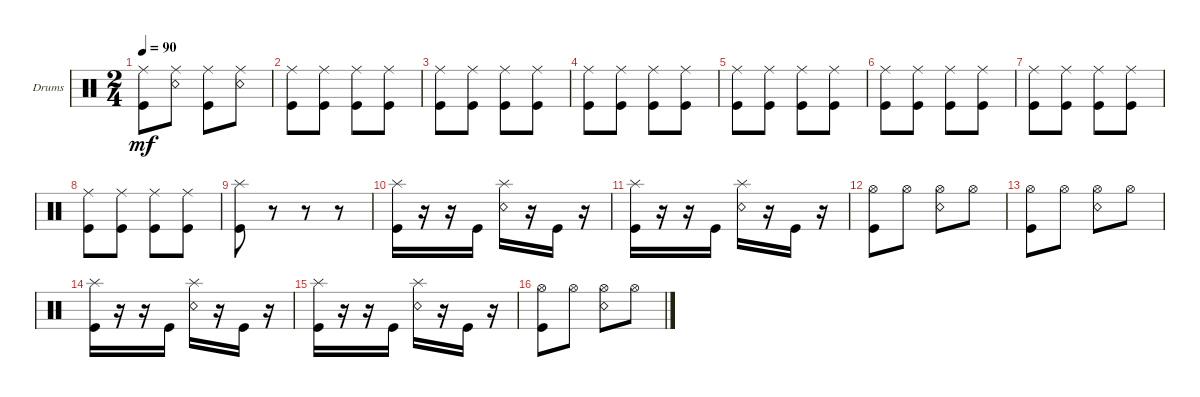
\defaultSystemsLayout 4
\bracketExtendMode groupsimilarinstruments
\firstSystemTrackNameOrientation horizontal
\otherSystemsTrackNameOrientation horizontal
\track ("Drumkit" "Drums") {instrument percussion}
\staff {score}
\articulation defaults
\ts (2 4)
\tempo 90
\clef neutral
\ks c
("Kick (hit)" "Ride (middle)").8{dy mf} ("Ride (middle)" "Snare (rim shot)").8 ("Ride (middle)" "Kick (hit)").8 ("Ride (middle)" "Snare (rim shot)").8 |
("Kick (hit)" "Ride (middle)").8 ("Kick (hit)" "Ride (middle)").8 ("Kick (hit)" "Ride (middle)").8 ("Kick (hit)" "Ride (middle)").8 |
("Kick (hit)" "Ride (middle)").8 ("Kick (hit)" "Ride (middle)").8 ("Kick (hit)" "Ride (middle)").8 ("Kick (hit)" "Ride (middle)").8 |
("Kick (hit)" "Ride (middle)").8 ("Kick (hit)" "Ride (middle)").8 ("Kick (hit)" "Ride (middle)").8 ("Kick (hit)" "Ride (middle)").8 |
("Kick (hit)" "Ride (middle)").8 ("Kick (hit)" "Ride (middle)").8 ("Kick (hit)" "Ride (middle)").8 ("Kick (hit)" "Ride (middle)").8 |
("Kick (hit)" "Ride (middle)").8 ("Kick (hit)" "Ride (middle)").8 ("Kick (hit)" "Ride (middle)").8 ("Kick (hit)" "Ride (middle)").8 |
("Kick (hit)" "Ride (middle)").8 ("Kick (hit)" "Ride (middle)").8 ("Kick (hit)" "Ride (middle)").8 ("Kick (hit)" "Ride (middle)").8 |
("Kick (hit)" "Ride (middle)").8 ("Kick (hit)" "Ride (middle)").8 ("Kick (hit)" "Ride (middle)").8 ("Kick (hit)" "Ride (middle)").8 |
("Kick (hit)" "Splash (hit)").8 r.8 r.8 r.8 |
("Splash (hit)" "Kick (hit)").16 r.16 r.16 "Kick (hit)".16 ("Snare (rim shot)" "Splash (hit)").16 r.16 "Kick (hit)".16 r.16 |
("Splash (hit)" "Kick (hit)").16 r.16 r.16 "Kick (hit)".16 ("Snare (rim shot)" "Splash (hit)").16 r.16 "Kick (hit)".16 r.16 |
("Hi-Hat (open)" "Kick (hit)").8 "Hi-Hat (open)".8 ("Hi-Hat (open)" "Snare (rim shot)").8 "Hi-Hat (open)".8 |
("Hi-Hat (open)" "Kick (hit)").8 "Hi-Hat (open)".8 ("Hi-Hat (open)" "Snare (rim shot)").8 "Hi-Hat (open)".8 |
("Splash (hit)" "Kick (hit)").16 r.16 r.16 "Kick (hit)".16 ("Snare (rim shot)" "Splash (hit)").16 r.16 "Kick (hit)".16 r.16 |
("Splash (hit)" "Kick (hit)").16 r.16 r.16 "Kick (hit)".16 ("Snare (rim shot)" "Splash (hit)").16 r.16 "Kick (hit)".16 r.16 |
("Hi-Hat (open)" "Kick (hit)").8 "Hi-Hat (open)".8 ("Hi-Hat (open)" "Snare (rim shot)").8 "Hi-Hat (open)".8
